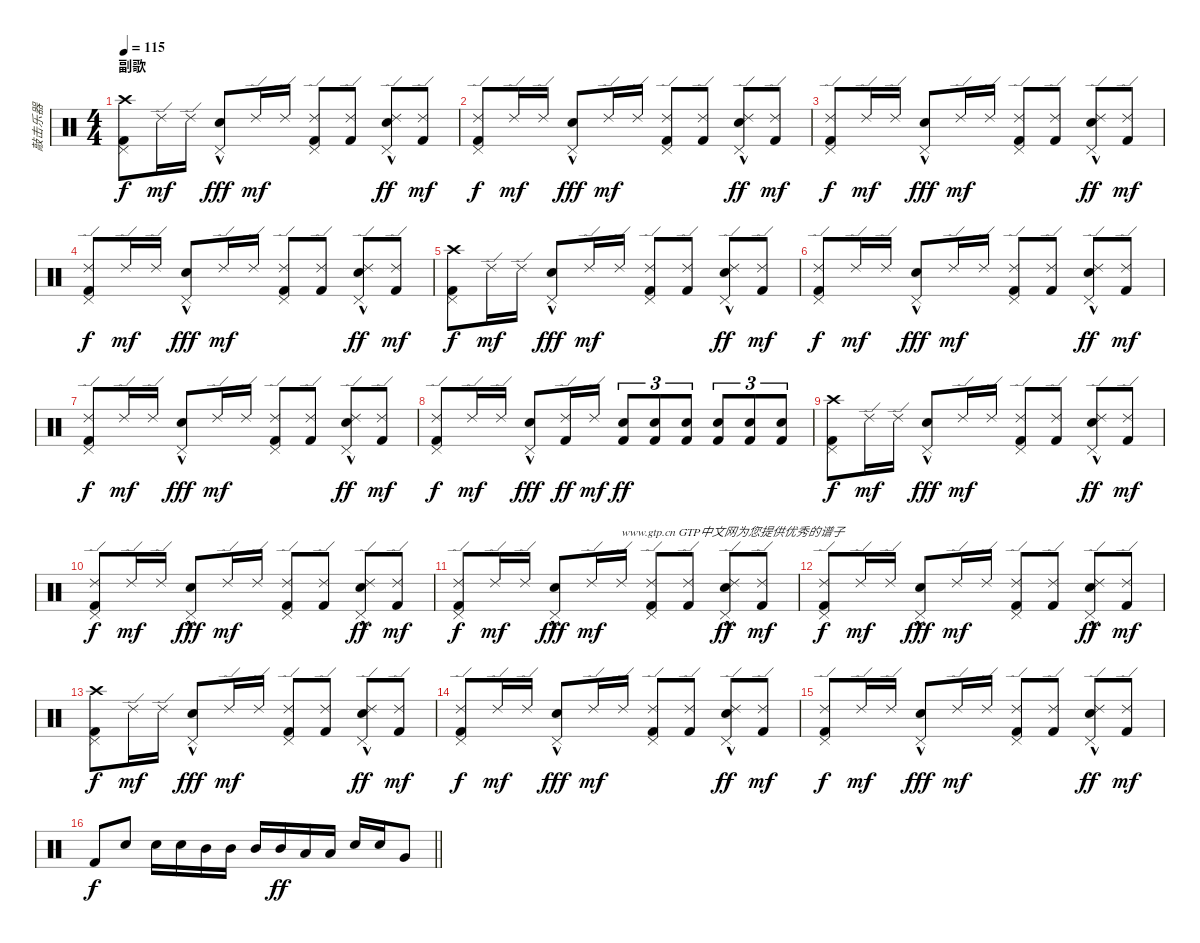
\track ("敲击乐器" "敲击乐器") {instrument percussion}
\staff {score}
\articulation defaults
\ts (4 4)
\section ("" "副歌")
\tempo 115
\clef neutral
\ks c
("Crash high (hit)" "Pedal Hi-Hat (hit)" "Kick (hit) 2").8{dy f} "Ride (edge) 2".16{dy mf} "Ride (edge) 2".16 ("Electric Snare (hit)"{hac} "Pedal Hi-Hat (hit)").8{dy fff} "Ride (edge) 2".16{dy mf} "Ride (edge) 2".16 ("Ride (edge) 2" "Pedal Hi-Hat (hit)" "Kick (hit) 2").8 ("Ride (edge) 2" "Kick (hit) 2").8 ("Ride (edge) 2" "Electric Snare (hit)"{hac} "Pedal Hi-Hat (hit)").8{dy ff} ("Ride (edge) 2" "Kick (hit) 2").8{dy mf} |
("Ride (edge) 2" "Pedal Hi-Hat (hit)" "Kick (hit) 2").8{dy f} "Ride (edge) 2".16{dy mf} "Ride (edge) 2".16 ("Electric Snare (hit)"{hac} "Pedal Hi-Hat (hit)").8{dy fff} "Ride (edge) 2".16{dy mf} "Ride (edge) 2".16 ("Ride (edge) 2" "Pedal Hi-Hat (hit)" "Kick (hit) 2").8 ("Ride (edge) 2" "Kick (hit) 2").8 ("Ride (edge) 2" "Electric Snare (hit)"{hac} "Pedal Hi-Hat (hit)").8{dy ff} ("Ride (edge) 2" "Kick (hit) 2").8{dy mf} |
("Ride (edge) 2" "Pedal Hi-Hat (hit)" "Kick (hit) 2").8{dy f} "Ride (edge) 2".16{dy mf} "Ride (edge) 2".16 ("Electric Snare (hit)"{hac} "Pedal Hi-Hat (hit)").8{dy fff} "Ride (edge) 2".16{dy mf} "Ride (edge) 2".16 ("Ride (edge) 2" "Pedal Hi-Hat (hit)" "Kick (hit) 2").8 ("Ride (edge) 2" "Kick (hit) 2").8 ("Ride (edge) 2" "Electric Snare (hit)"{hac} "Pedal Hi-Hat (hit)").8{dy ff} ("Ride (edge) 2" "Kick (hit) 2").8{dy mf} |
("Ride (edge) 2" "Pedal Hi-Hat (hit)" "Kick (hit) 2").8{dy f} "Ride (edge) 2".16{dy mf} "Ride (edge) 2".16 ("Electric Snare (hit)"{hac} "Pedal Hi-Hat (hit)").8{dy fff} "Ride (edge) 2".16{dy mf} "Ride (edge) 2".16 ("Ride (edge) 2" "Pedal Hi-Hat (hit)" "Kick (hit) 2").8 ("Ride (edge) 2" "Kick (hit) 2").8 ("Ride (edge) 2" "Electric Snare (hit)"{hac} "Pedal Hi-Hat (hit)").8{dy ff} ("Ride (edge) 2" "Kick (hit) 2").8{dy mf} |
("Crash high (hit)" "Pedal Hi-Hat (hit)" "Kick (hit) 2").8{dy f} "Ride (edge) 2".16{dy mf} "Ride (edge) 2".16 ("Electric Snare (hit)"{hac} "Pedal Hi-Hat (hit)").8{dy fff} "Ride (edge) 2".16{dy mf} "Ride (edge) 2".16 ("Ride (edge) 2" "Pedal Hi-Hat (hit)" "Kick (hit) 2").8 ("Ride (edge) 2" "Kick (hit) 2").8 ("Ride (edge) 2" "Electric Snare (hit)"{hac} "Pedal Hi-Hat (hit)").8{dy ff} ("Ride (edge) 2" "Kick (hit) 2").8{dy mf} |
("Ride (edge) 2" "Pedal Hi-Hat (hit)" "Kick (hit) 2").8{dy f} "Ride (edge) 2".16{dy mf} "Ride (edge) 2".16 ("Electric Snare (hit)"{hac} "Pedal Hi-Hat (hit)").8{dy fff} "Ride (edge) 2".16{dy mf} "Ride (edge) 2".16 ("Ride (edge) 2" "Pedal Hi-Hat (hit)" "Kick (hit) 2").8 ("Ride (edge) 2" "Kick (hit) 2").8 ("Ride (edge) 2" "Electric Snare (hit)"{hac} "Pedal Hi-Hat (hit)").8{dy ff} ("Ride (edge) 2" "Kick (hit) 2").8{dy mf} |
("Ride (edge) 2" "Pedal Hi-Hat (hit)" "Kick (hit) 2").8{dy f} "Ride (edge) 2".16{dy mf} "Ride (edge) 2".16 ("Electric Snare (hit)"{hac} "Pedal Hi-Hat (hit)").8{dy fff} "Ride (edge) 2".16{dy mf} "Ride (edge) 2".16 ("Ride (edge) 2" "Pedal Hi-Hat (hit)" "Kick (hit) 2").8 ("Ride (edge) 2" "Kick (hit) 2").8 ("Ride (edge) 2" "Electric Snare (hit)"{hac} "Pedal Hi-Hat (hit)").8{dy ff} ("Ride (edge) 2" "Kick (hit) 2").8{dy mf} |
("Ride (edge) 2" "Pedal Hi-Hat (hit)" "Kick (hit) 2").8{dy f} "Ride (edge) 2".16{dy mf} "Ride (edge) 2".16 ("Electric Snare (hit)"{hac} "Pedal Hi-Hat (hit)").8{dy fff} ("Ride (edge) 2" "Kick (hit) 2").16{dy ff} "Ride (edge) 2".16{dy mf} ("Electric Snare (hit)" "Kick (hit) 2").8{tu (3 2) dy ff} ("Electric Snare (hit)" "Kick (hit) 2").8{tu (3 2)} ("Electric Snare (hit)" "Kick (hit) 2").8{tu (3 2)} ("Electric Snare (hit)" "Kick (hit) 2").8{tu (3 2)} ("Electric Snare (hit)" "Kick (hit) 2").8{tu (3 2)} ("Electric Snare (hit)" "Kick (hit) 2").8{tu (3 2)} |
("Crash high (hit)" "Pedal Hi-Hat (hit)" "Kick (hit) 2").8{dy f} "Ride (edge) 2".16{dy mf} "Ride (edge) 2".16 ("Electric Snare (hit)"{hac} "Pedal Hi-Hat (hit)").8{dy fff} "Ride (edge) 2".16{dy mf} "Ride (edge) 2".16 ("Ride (edge) 2" "Pedal Hi-Hat (hit)" "Kick (hit) 2").8 ("Ride (edge) 2" "Kick (hit) 2").8 ("Ride (edge) 2" "Electric Snare (hit)"{hac} "Pedal Hi-Hat (hit)").8{dy ff} ("Ride (edge) 2" "Kick (hit) 2").8{dy mf} |
("Ride (edge) 2" "Pedal Hi-Hat (hit)" "Kick (hit) 2").8{dy f} "Ride (edge) 2".16{dy mf} "Ride (edge) 2".16 ("Electric Snare (hit)"{hac} "Pedal Hi-Hat (hit)").8{dy fff} "Ride (edge) 2".16{dy mf} "Ride (edge) 2".16 ("Ride (edge) 2" "Pedal Hi-Hat (hit)" "Kick (hit) 2").8 ("Ride (edge) 2" "Kick (hit) 2").8 ("Ride (edge) 2" "Electric Snare (hit)"{hac} "Pedal Hi-Hat (hit)").8{dy ff} ("Ride (edge) 2" "Kick (hit) 2").8{dy mf} |
("Ride (edge) 2" "Pedal Hi-Hat (hit)" "Kick (hit) 2").8{dy f} "Ride (edge) 2".16{dy mf} "Ride (edge) 2".16 ("Electric Snare (hit)"{hac} "Pedal Hi-Hat (hit)").8{dy fff} "Ride (edge) 2".16{dy mf} "Ride (edge) 2".16{txt "www.gtp.cn GTP中文网为您提供优秀的谱子"} ("Ride (edge) 2" "Pedal Hi-Hat (hit)" "Kick (hit) 2").8 ("Ride (edge) 2" "Kick (hit) 2").8 ("Ride (edge) 2" "Electric Snare (hit)"{hac} "Pedal Hi-Hat (hit)").8{dy ff} ("Ride (edge) 2" "Kick (hit) 2").8{dy mf} |
("Ride (edge) 2" "Pedal Hi-Hat (hit)" "Kick (hit) 2").8{dy f} "Ride (edge) 2".16{dy mf} "Ride (edge) 2".16 ("Electric Snare (hit)"{hac} "Pedal Hi-Hat (hit)").8{dy fff} "Ride (edge) 2".16{dy mf} "Ride (edge) 2".16 ("Ride (edge) 2" "Pedal Hi-Hat (hit)" "Kick (hit) 2").8 ("Ride (edge) 2" "Kick (hit) 2").8 ("Ride (edge) 2" "Electric Snare (hit)"{hac} "Pedal Hi-Hat (hit)").8{dy ff} ("Ride (edge) 2" "Kick (hit) 2").8{dy mf} |
("Crash high (hit)" "Pedal Hi-Hat (hit)" "Kick (hit) 2").8{dy f} "Ride (edge) 2".16{dy mf} "Ride (edge) 2".16 ("Electric Snare (hit)"{hac} "Pedal Hi-Hat (hit)").8{dy fff} "Ride (edge) 2".16{dy mf} "Ride (edge) 2".16 ("Ride (edge) 2" "Pedal Hi-Hat (hit)" "Kick (hit) 2").8 ("Ride (edge) 2" "Kick (hit) 2").8 ("Ride (edge) 2" "Electric Snare (hit)"{hac} "Pedal Hi-Hat (hit)").8{dy ff} ("Ride (edge) 2" "Kick (hit) 2").8{dy mf} |
("Ride (edge) 2" "Pedal Hi-Hat (hit)" "Kick (hit) 2").8{dy f} "Ride (edge) 2".16{dy mf} "Ride (edge) 2".16 ("Electric Snare (hit)"{hac} "Pedal Hi-Hat (hit)").8{dy fff} "Ride (edge) 2".16{dy mf} "Ride (edge) 2".16 ("Ride (edge) 2" "Pedal Hi-Hat (hit)" "Kick (hit) 2").8 ("Ride (edge) 2" "Kick (hit) 2").8 ("Ride (edge) 2" "Electric Snare (hit)"{hac} "Pedal Hi-Hat (hit)").8{dy ff} ("Ride (edge) 2" "Kick (hit) 2").8{dy mf} |
("Ride (edge) 2" "Pedal Hi-Hat (hit)" "Kick (hit) 2").8{dy f} "Ride (edge) 2".16{dy mf} "Ride (edge) 2".16 ("Electric Snare (hit)"{hac} "Pedal Hi-Hat (hit)").8{dy fff} "Ride (edge) 2".16{dy mf} "Ride (edge) 2".16 ("Ride (edge) 2" "Pedal Hi-Hat (hit)" "Kick (hit) 2").8 ("Ride (edge) 2" "Kick (hit) 2").8 ("Ride (edge) 2" "Electric Snare (hit)"{hac} "Pedal Hi-Hat (hit)").8{dy ff} ("Ride (edge) 2" "Kick (hit) 2").8{dy mf} |
\barLineRight lightlight "Kick (hit) 2".8{dy f} "Snare (hit) 2".8 "Snare (hit) 2".16 "Snare (hit) 2".16 "Mid Tom (hit)".16 "Mid Tom (hit)".16 "Mid Tom (hit)".16 "Mid Tom (hit)".16{dy ff} "Low Tom (hit)".16 "Low Tom (hit)".16 "Snare (hit) 2".16 "Snare (hit) 2".16 "Very Low Tom (hit)".8
